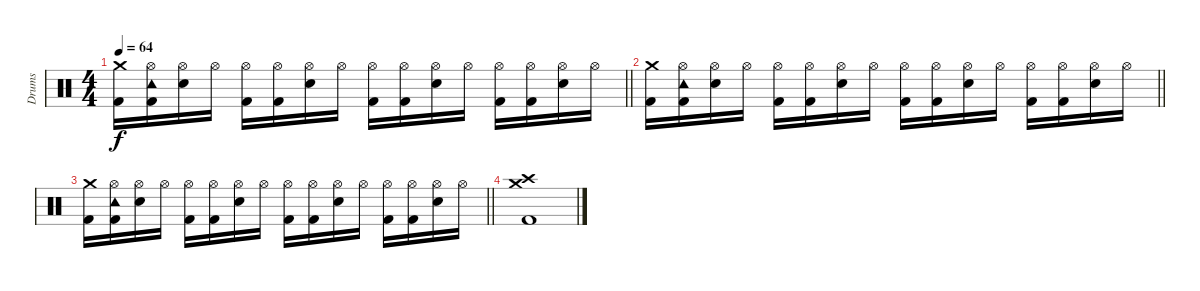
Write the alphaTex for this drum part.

\track ("Drums" "Drums") {instrument percussion}
\staff {score}
\articulation defaults
\ts (4 4)
\tempo 64
\clef neutral
\barLineRight lightlight
\ks c
("Crash medium (hit)" "Kick (hit) 2").16{dy f} ("Hi-Hat (open)" "Tambourine (hit)" "Kick (hit) 2").16 ("Hi-Hat (open)" "Electric Snare (hit)").16 "Hi-Hat (open)".16 ("Hi-Hat (open)" "Kick (hit) 2").16 ("Hi-Hat (open)" "Kick (hit) 2").16 ("Hi-Hat (open)" "Electric Snare (hit)").16 "Hi-Hat (open)".16 ("Hi-Hat (open)" "Kick (hit) 2").16 ("Hi-Hat (open)" "Kick (hit) 2").16 ("Hi-Hat (open)" "Electric Snare (hit)").16 "Hi-Hat (open)".16 ("Hi-Hat (open)" "Kick (hit) 2").16 ("Hi-Hat (open)" "Kick (hit) 2").16 ("Hi-Hat (open)" "Electric Snare (hit)").16 "Hi-Hat (open)".16 |
\barLineRight lightlight
("Crash medium (hit)" "Kick (hit) 2").16 ("Hi-Hat (open)" "Tambourine (hit)" "Kick (hit) 2").16 ("Hi-Hat (open)" "Electric Snare (hit)").16 "Hi-Hat (open)".16 ("Hi-Hat (open)" "Kick (hit) 2").16 ("Hi-Hat (open)" "Kick (hit) 2").16 ("Hi-Hat (open)" "Electric Snare (hit)").16 "Hi-Hat (open)".16 ("Hi-Hat (open)" "Kick (hit) 2").16 ("Hi-Hat (open)" "Kick (hit) 2").16 ("Hi-Hat (open)" "Electric Snare (hit)").16 "Hi-Hat (open)".16 ("Hi-Hat (open)" "Kick (hit) 2").16 ("Hi-Hat (open)" "Kick (hit) 2").16 ("Hi-Hat (open)" "Electric Snare (hit)").16 "Hi-Hat (open)".16 |
\barLineRight lightlight
("Crash medium (hit)" "Kick (hit) 2").16 ("Hi-Hat (open)" "Tambourine (hit)" "Kick (hit) 2").16 ("Hi-Hat (open)" "Electric Snare (hit)").16 "Hi-Hat (open)".16 ("Hi-Hat (open)" "Kick (hit) 2").16 ("Hi-Hat (open)" "Kick (hit) 2").16 ("Hi-Hat (open)" "Electric Snare (hit)").16 "Hi-Hat (open)".16 ("Hi-Hat (open)" "Kick (hit) 2").16 ("Hi-Hat (open)" "Kick (hit) 2").16 ("Hi-Hat (open)" "Electric Snare (hit)").16 "Hi-Hat (open)".16 ("Hi-Hat (open)" "Kick (hit) 2").16 ("Hi-Hat (open)" "Kick (hit) 2").16 ("Hi-Hat (open)" "Electric Snare (hit)").16 "Hi-Hat (open)".16 |
("Crash high (hit)" "Crash medium (hit)" "Kick (hit) 2").1
